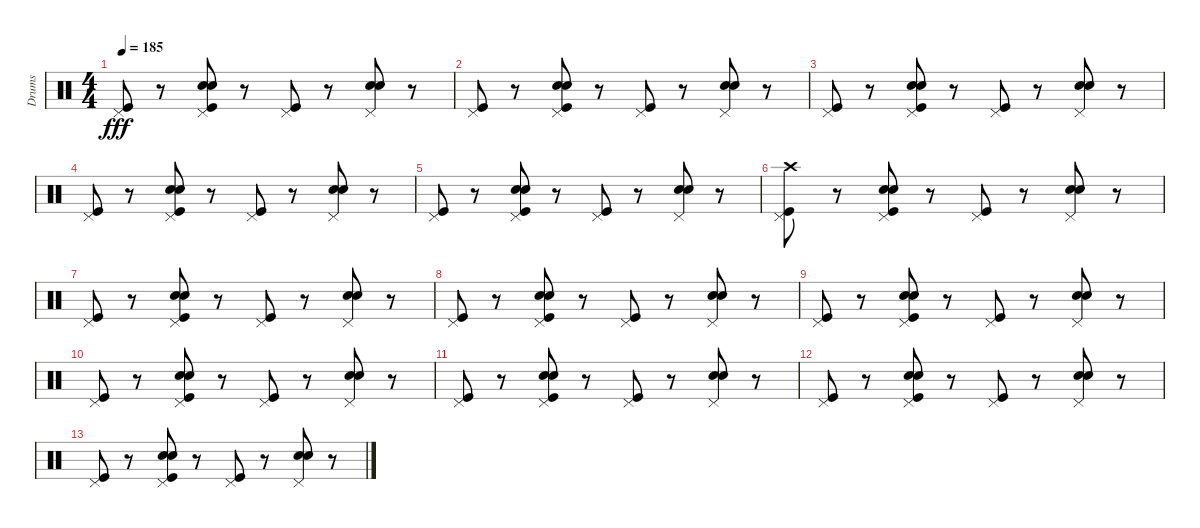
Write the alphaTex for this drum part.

\track ("Drums" "Drums") {instrument percussion}
\staff {score}
\articulation defaults
\ts (4 4)
\tempo 185
\clef neutral
\ks c
("Pedal Hi-Hat (hit)" "Kick (hit)").8{dy fff} r.8 ("Pedal Hi-Hat (hit)" "Kick (hit)" "Hand Clap (hit)" "Snare (hit) 2").8 r.8 ("Pedal Hi-Hat (hit)" "Kick (hit)").8 r.8 ("Snare (hit) 2" "Pedal Hi-Hat (hit)" "Hand Clap (hit)").8 r.8 |
("Pedal Hi-Hat (hit)" "Kick (hit)").8 r.8 ("Pedal Hi-Hat (hit)" "Kick (hit)" "Hand Clap (hit)" "Snare (hit) 2").8 r.8 ("Pedal Hi-Hat (hit)" "Kick (hit)").8 r.8 ("Snare (hit) 2" "Pedal Hi-Hat (hit)" "Hand Clap (hit)").8 r.8 |
("Pedal Hi-Hat (hit)" "Kick (hit)").8 r.8 ("Pedal Hi-Hat (hit)" "Kick (hit)" "Hand Clap (hit)" "Snare (hit) 2").8 r.8 ("Pedal Hi-Hat (hit)" "Kick (hit)").8 r.8 ("Snare (hit) 2" "Pedal Hi-Hat (hit)" "Hand Clap (hit)").8 r.8 |
("Pedal Hi-Hat (hit)" "Kick (hit)").8 r.8 ("Pedal Hi-Hat (hit)" "Kick (hit)" "Hand Clap (hit)" "Snare (hit) 2").8 r.8 ("Pedal Hi-Hat (hit)" "Kick (hit)").8 r.8 ("Snare (hit) 2" "Pedal Hi-Hat (hit)" "Hand Clap (hit)").8 r.8 |
("Pedal Hi-Hat (hit)" "Kick (hit)").8 r.8 ("Pedal Hi-Hat (hit)" "Kick (hit)" "Hand Clap (hit)" "Snare (hit) 2").8 r.8 ("Pedal Hi-Hat (hit)" "Kick (hit)").8 r.8 ("Snare (hit) 2" "Pedal Hi-Hat (hit)" "Hand Clap (hit)").8 r.8 |
("Pedal Hi-Hat (hit)" "Crash high (hit)" "Kick (hit)").8{volume 14} r.8 ("Pedal Hi-Hat (hit)" "Kick (hit)" "Hand Clap (hit)" "Snare (hit) 2").8 r.8 ("Pedal Hi-Hat (hit)" "Kick (hit)").8 r.8 ("Snare (hit) 2" "Pedal Hi-Hat (hit)" "Hand Clap (hit)").8 r.8 |
("Pedal Hi-Hat (hit)" "Kick (hit)").8 r.8 ("Pedal Hi-Hat (hit)" "Kick (hit)" "Hand Clap (hit)" "Snare (hit) 2").8 r.8 ("Pedal Hi-Hat (hit)" "Kick (hit)").8 r.8 ("Snare (hit) 2" "Pedal Hi-Hat (hit)" "Hand Clap (hit)").8 r.8 |
("Pedal Hi-Hat (hit)" "Kick (hit)").8{volume 12} r.8 ("Pedal Hi-Hat (hit)" "Kick (hit)" "Hand Clap (hit)" "Snare (hit) 2").8 r.8 ("Pedal Hi-Hat (hit)" "Kick (hit)").8 r.8 ("Snare (hit) 2" "Pedal Hi-Hat (hit)" "Hand Clap (hit)").8 r.8 |
("Pedal Hi-Hat (hit)" "Kick (hit)").8 r.8 ("Pedal Hi-Hat (hit)" "Kick (hit)" "Hand Clap (hit)" "Snare (hit) 2").8 r.8 ("Pedal Hi-Hat (hit)" "Kick (hit)").8 r.8 ("Snare (hit) 2" "Pedal Hi-Hat (hit)" "Hand Clap (hit)").8 r.8 |
("Pedal Hi-Hat (hit)" "Kick (hit)").8{volume 10} r.8 ("Pedal Hi-Hat (hit)" "Kick (hit)" "Hand Clap (hit)" "Snare (hit) 2").8 r.8 ("Pedal Hi-Hat (hit)" "Kick (hit)").8 r.8 ("Snare (hit) 2" "Pedal Hi-Hat (hit)" "Hand Clap (hit)").8 r.8 |
("Pedal Hi-Hat (hit)" "Kick (hit)").8{volume 8} r.8 ("Pedal Hi-Hat (hit)" "Kick (hit)" "Hand Clap (hit)" "Snare (hit) 2").8 r.8 ("Pedal Hi-Hat (hit)" "Kick (hit)").8 r.8 ("Snare (hit) 2" "Pedal Hi-Hat (hit)" "Hand Clap (hit)").8 r.8 |
("Pedal Hi-Hat (hit)" "Kick (hit)").8{volume 6} r.8 ("Pedal Hi-Hat (hit)" "Kick (hit)" "Hand Clap (hit)" "Snare (hit) 2").8 r.8 ("Pedal Hi-Hat (hit)" "Kick (hit)").8 r.8 ("Snare (hit) 2" "Pedal Hi-Hat (hit)" "Hand Clap (hit)").8 r.8 |
("Pedal Hi-Hat (hit)" "Kick (hit)").8{volume 4} r.8 ("Pedal Hi-Hat (hit)" "Kick (hit)" "Hand Clap (hit)" "Snare (hit) 2").8 r.8 ("Pedal Hi-Hat (hit)" "Kick (hit)").8 r.8 ("Snare (hit) 2" "Pedal Hi-Hat (hit)" "Hand Clap (hit)").8 r.8
